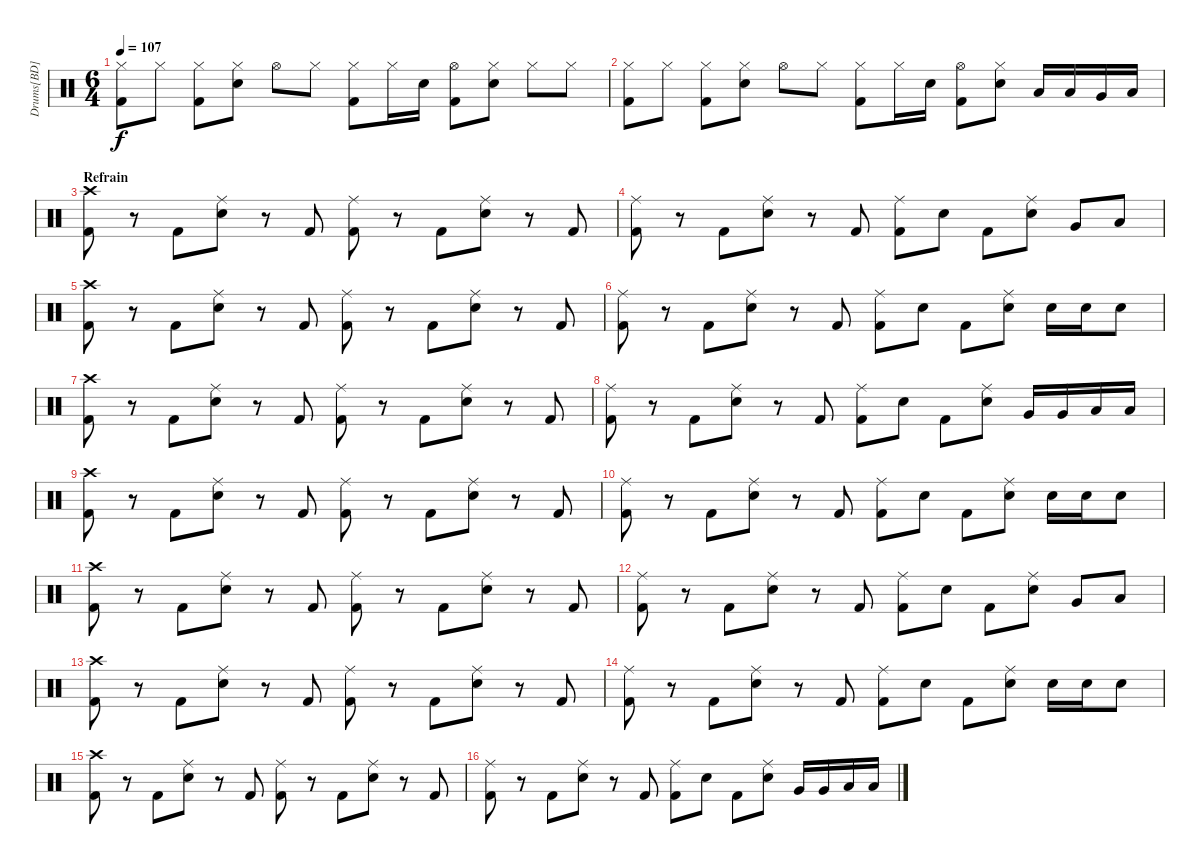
\track ("Drums[BD]" "Drums[BD]") {instrument percussion}
\staff {score}
\articulation defaults
\ts (6 4)
\tempo 107
\clef neutral
\ks c
("Kick (hit) 2" "Hi-Hat (closed)").8{dy f} "Hi-Hat (closed)".8 ("Kick (hit) 2" "Hi-Hat (closed)").8 ("Electric Snare (hit)" "Hi-Hat (closed)").8 "Hi-Hat (open)".8 "Hi-Hat (closed)".8 ("Kick (hit) 2" "Hi-Hat (closed)").8 "Hi-Hat (closed)".16 "Electric Snare (hit)".16 ("Kick (hit) 2" "Hi-Hat (open)").8 ("Electric Snare (hit)" "Hi-Hat (closed)").8 "Hi-Hat (closed)".8 "Hi-Hat (closed)".8 |
("Kick (hit) 2" "Hi-Hat (closed)").8 "Hi-Hat (closed)".8 ("Kick (hit) 2" "Hi-Hat (closed)").8 ("Electric Snare (hit)" "Hi-Hat (closed)").8 "Hi-Hat (open)".8 "Hi-Hat (closed)".8 ("Kick (hit) 2" "Hi-Hat (closed)").8 "Hi-Hat (closed)".16 "Electric Snare (hit)".16 ("Kick (hit) 2" "Hi-Hat (open)").8 ("Electric Snare (hit)" "Hi-Hat (closed)").8 "Low Tom (hit)".16 "Low Tom (hit)".16 "Very Low Tom (hit)".16 "Low Floor Tom (hit)".16 |
\section ("" "Refrain")
("Kick (hit) 2" "Crash high (hit)").8 r.8 "Kick (hit) 2".8 ("Electric Snare (hit)" "Ride (middle)").8 r.8 "Kick (hit) 2".8 ("Kick (hit) 2" "Ride (middle)").8 r.8 "Kick (hit) 2".8 ("Electric Snare (hit)" "Ride (middle)").8 r.8 "Kick (hit) 2".8 |
("Kick (hit) 2" "Ride (middle)").8 r.8 "Kick (hit) 2".8 ("Electric Snare (hit)" "Ride (middle)").8 r.8 "Kick (hit) 2".8 ("Kick (hit) 2" "Ride (middle)").8 "Electric Snare (hit)".8 "Kick (hit) 2".8 ("Electric Snare (hit)" "Ride (middle)").8 "Very Low Tom (hit)".8 "Low Floor Tom (hit)".8 |
("Kick (hit) 2" "Crash high (hit)").8 r.8 "Kick (hit) 2".8 ("Electric Snare (hit)" "Ride (middle)").8 r.8 "Kick (hit) 2".8 ("Kick (hit) 2" "Ride (middle)").8 r.8 "Kick (hit) 2".8 ("Electric Snare (hit)" "Ride (middle)").8 r.8 "Kick (hit) 2".8 |
("Kick (hit) 2" "Ride (middle)").8 r.8 "Kick (hit) 2".8 ("Electric Snare (hit)" "Ride (middle)").8 r.8 "Kick (hit) 2".8 ("Kick (hit) 2" "Ride (middle)").8 "Electric Snare (hit)".8 "Kick (hit) 2".8 ("Electric Snare (hit)" "Ride (middle)").8 "Electric Snare (hit)".16 "Electric Snare (hit)".16 "Electric Snare (hit)".8 |
("Kick (hit) 2" "Crash high (hit)").8 r.8 "Kick (hit) 2".8 ("Electric Snare (hit)" "Ride (middle)").8 r.8 "Kick (hit) 2".8 ("Kick (hit) 2" "Ride (middle)").8 r.8 "Kick (hit) 2".8 ("Electric Snare (hit)" "Ride (middle)").8 r.8 "Kick (hit) 2".8 |
("Kick (hit) 2" "Ride (middle)").8 r.8 "Kick (hit) 2".8 ("Electric Snare (hit)" "Ride (middle)").8 r.8 "Kick (hit) 2".8 ("Kick (hit) 2" "Ride (middle)").8 "Electric Snare (hit)".8 "Kick (hit) 2".8 ("Electric Snare (hit)" "Ride (middle)").8 "Very Low Tom (hit)".16 "Very Low Tom (hit)".16 "Low Floor Tom (hit)".16 "Low Floor Tom (hit)".16 |
("Kick (hit) 2" "Crash high (hit)").8 r.8 "Kick (hit) 2".8 ("Electric Snare (hit)" "Ride (middle)").8 r.8 "Kick (hit) 2".8 ("Kick (hit) 2" "Ride (middle)").8 r.8 "Kick (hit) 2".8 ("Electric Snare (hit)" "Ride (middle)").8 r.8 "Kick (hit) 2".8 |
("Kick (hit) 2" "Ride (middle)").8 r.8 "Kick (hit) 2".8 ("Electric Snare (hit)" "Ride (middle)").8 r.8 "Kick (hit) 2".8 ("Kick (hit) 2" "Ride (middle)").8 "Electric Snare (hit)".8 "Kick (hit) 2".8 ("Electric Snare (hit)" "Ride (middle)").8 "Electric Snare (hit)".16 "Electric Snare (hit)".16 "Electric Snare (hit)".8 |
("Kick (hit) 2" "Crash high (hit)").8 r.8 "Kick (hit) 2".8 ("Electric Snare (hit)" "Ride (middle)").8 r.8 "Kick (hit) 2".8 ("Kick (hit) 2" "Ride (middle)").8 r.8 "Kick (hit) 2".8 ("Electric Snare (hit)" "Ride (middle)").8 r.8 "Kick (hit) 2".8 |
("Kick (hit) 2" "Ride (middle)").8 r.8 "Kick (hit) 2".8 ("Electric Snare (hit)" "Ride (middle)").8 r.8 "Kick (hit) 2".8 ("Kick (hit) 2" "Ride (middle)").8 "Electric Snare (hit)".8 "Kick (hit) 2".8 ("Electric Snare (hit)" "Ride (middle)").8 "Very Low Tom (hit)".8 "Low Floor Tom (hit)".8 |
("Kick (hit) 2" "Crash high (hit)").8 r.8 "Kick (hit) 2".8 ("Electric Snare (hit)" "Ride (middle)").8 r.8 "Kick (hit) 2".8 ("Kick (hit) 2" "Ride (middle)").8 r.8 "Kick (hit) 2".8 ("Electric Snare (hit)" "Ride (middle)").8 r.8 "Kick (hit) 2".8 |
("Kick (hit) 2" "Ride (middle)").8 r.8 "Kick (hit) 2".8 ("Electric Snare (hit)" "Ride (middle)").8 r.8 "Kick (hit) 2".8 ("Kick (hit) 2" "Ride (middle)").8 "Electric Snare (hit)".8 "Kick (hit) 2".8 ("Electric Snare (hit)" "Ride (middle)").8 "Electric Snare (hit)".16 "Electric Snare (hit)".16 "Electric Snare (hit)".8 |
("Kick (hit) 2" "Crash high (hit)").8 r.8 "Kick (hit) 2".8 ("Electric Snare (hit)" "Ride (middle)").8 r.8 "Kick (hit) 2".8 ("Kick (hit) 2" "Ride (middle)").8 r.8 "Kick (hit) 2".8 ("Electric Snare (hit)" "Ride (middle)").8 r.8 "Kick (hit) 2".8 |
("Kick (hit) 2" "Ride (middle)").8 r.8 "Kick (hit) 2".8 ("Electric Snare (hit)" "Ride (middle)").8 r.8 "Kick (hit) 2".8 ("Kick (hit) 2" "Ride (middle)").8 "Electric Snare (hit)".8 "Kick (hit) 2".8 ("Electric Snare (hit)" "Ride (middle)").8 "Very Low Tom (hit)".16 "Very Low Tom (hit)".16 "Low Floor Tom (hit)".16 "Low Floor Tom (hit)".16
